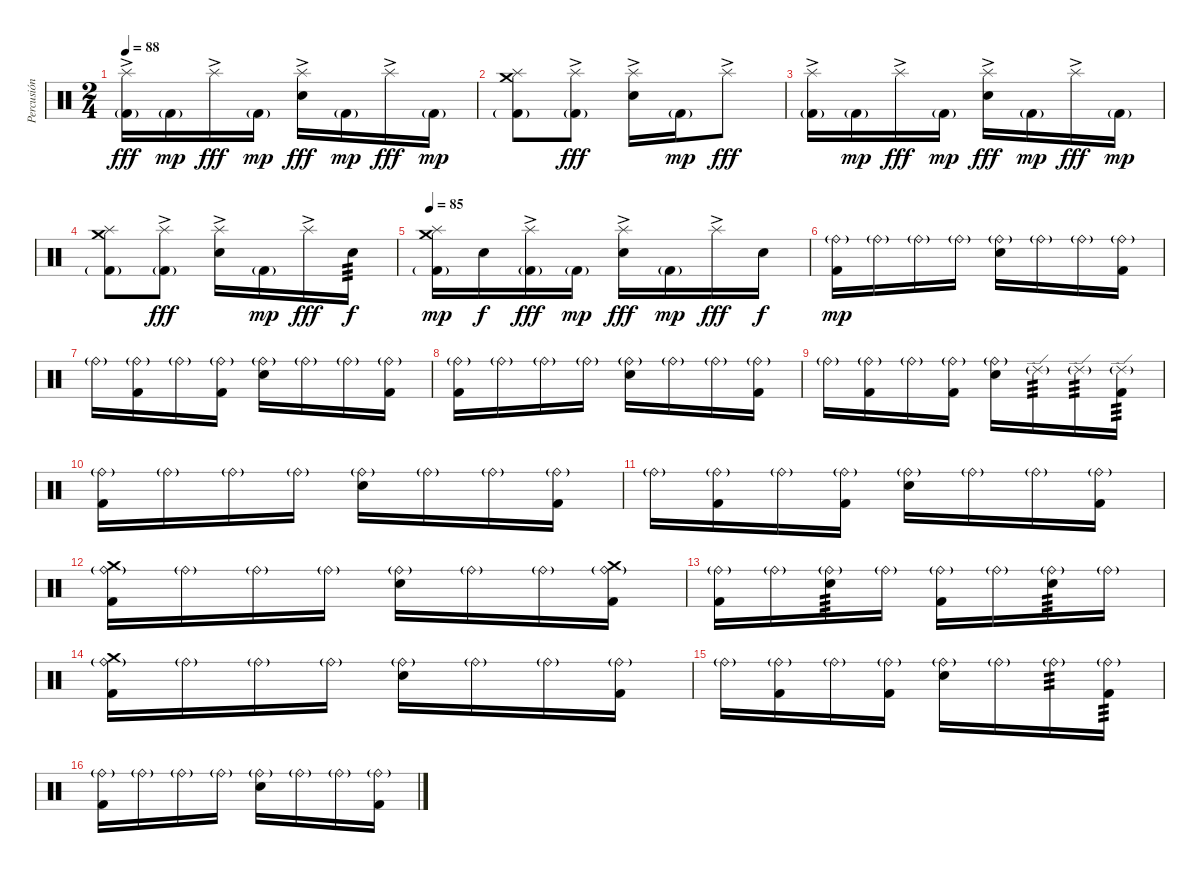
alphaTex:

\track ("Percusión" "Percusión") {instrument percussion}
\staff {score}
\articulation defaults
\ts (2 4)
\tempo 88
\clef neutral
\ks c
("Kick (hit) 2"{g} "Splash (hit)"{ac}).16{dy fff} "Kick (hit) 2"{g}.16{dy mp} "Splash (hit)"{ac}.16{dy fff} "Kick (hit) 2"{g}.16{dy mp} ("Electric Snare (hit)" "Splash (hit)"{ac}).16{dy fff} "Kick (hit) 2"{g}.16{dy mp} "Splash (hit)"{ac}.16{dy fff} "Kick (hit) 2"{g}.16{dy mp} |
("Kick (hit) 2"{g} "Splash (hit)" "Crash medium (hit)").8 ("Kick (hit) 2"{g} "Splash (hit)"{ac}).8{dy fff} ("Electric Snare (hit)" "Splash (hit)"{ac}).16 "Kick (hit) 2"{g}.16{dy mp} "Splash (hit)"{ac}.8{dy fff} |
("Kick (hit) 2"{g} "Splash (hit)"{ac}).16 "Kick (hit) 2"{g}.16{dy mp} "Splash (hit)"{ac}.16{dy fff} "Kick (hit) 2"{g}.16{dy mp} ("Electric Snare (hit)" "Splash (hit)"{ac}).16{dy fff} "Kick (hit) 2"{g}.16{dy mp} "Splash (hit)"{ac}.16{dy fff} "Kick (hit) 2"{g}.16{dy mp} |
("Kick (hit) 2"{g} "Splash (hit)" "Crash medium (hit)").8 ("Kick (hit) 2"{g} "Splash (hit)"{ac}).8{dy fff} ("Electric Snare (hit)" "Splash (hit)"{ac}).16 "Kick (hit) 2"{g}.16{dy mp} "Splash (hit)"{ac}.16{dy fff} "Electric Snare (hit)".16{tp 3 dy f} |
\tempo 85
("Kick (hit) 2"{g} "Splash (hit)" "Crash medium (hit)").16{dy mp} "Electric Snare (hit)".16{dy f} ("Kick (hit) 2"{g} "Splash (hit)"{ac}).16{dy fff} "Kick (hit) 2"{g}.16{dy mp} ("Electric Snare (hit)" "Splash (hit)"{ac}).16{dy fff} "Kick (hit) 2"{g}.16{dy mp} "Splash (hit)"{ac}.16{dy fff} "Electric Snare (hit)".16{dy f} |
("Kick (hit) 2" "Ride (bell)"{g}).16{dy mp} "Ride (bell)"{g}.16 "Ride (bell)"{g}.16 "Ride (bell)"{g}.16 ("Electric Snare (hit)" "Ride (bell)"{g}).16 "Ride (bell)"{g}.16 "Ride (bell)"{g}.16 ("Kick (hit) 2" "Ride (bell)"{g}).16 |
"Ride (bell)"{g}.16 ("Kick (hit) 2" "Ride (bell)"{g}).16 "Ride (bell)"{g}.16 ("Kick (hit) 2" "Ride (bell)"{g}).16 ("Electric Snare (hit)" "Ride (bell)"{g}).16 "Ride (bell)"{g}.16 "Ride (bell)"{g}.16 ("Kick (hit) 2" "Ride (bell)"{g}).16 |
("Kick (hit) 2" "Ride (bell)"{g}).16 "Ride (bell)"{g}.16 "Ride (bell)"{g}.16 "Ride (bell)"{g}.16 ("Electric Snare (hit)" "Ride (bell)"{g}).16 "Ride (bell)"{g}.16 "Ride (bell)"{g}.16 ("Kick (hit) 2" "Ride (bell)"{g}).16 |
"Ride (bell)"{g}.16 ("Kick (hit) 2" "Ride (bell)"{g}).16 "Ride (bell)"{g}.16 ("Kick (hit) 2" "Ride (bell)"{g}).16 ("Electric Snare (hit)" "Ride (bell)"{g}).16 "Ride (edge) 2"{g}.16{tp 3} "Ride (edge) 2"{g}.16{tp 3} ("Kick (hit) 2" "Ride (edge) 2"{g}).16{tp 3} |
("Kick (hit) 2" "Ride (bell)"{g}).16 "Ride (bell)"{g}.16 "Ride (bell)"{g}.16 "Ride (bell)"{g}.16 ("Electric Snare (hit)" "Ride (bell)"{g}).16 "Ride (bell)"{g}.16 "Ride (bell)"{g}.16 ("Kick (hit) 2" "Ride (bell)"{g}).16 |
"Ride (bell)"{g}.16 ("Kick (hit) 2" "Ride (bell)"{g}).16 "Ride (bell)"{g}.16 ("Kick (hit) 2" "Ride (bell)"{g}).16 ("Electric Snare (hit)" "Ride (bell)"{g}).16 "Ride (bell)"{g}.16 "Ride (bell)"{g}.16 ("Kick (hit) 2" "Ride (bell)"{g}).16 |
("Kick (hit) 2" "Ride (bell)"{g} "Crash medium (hit)").16 "Ride (bell)"{g}.16 "Ride (bell)"{g}.16 "Ride (bell)"{g}.16 ("Electric Snare (hit)" "Ride (bell)"{g}).16 "Ride (bell)"{g}.16 "Ride (bell)"{g}.16 ("Kick (hit) 2" "Ride (bell)"{g} "Crash medium (hit)").16 |
("Kick (hit) 2" "Ride (bell)"{g}).16 "Ride (bell)"{g}.16 ("Electric Snare (hit)" "Ride (bell)"{g}).16{tp 3} "Ride (bell)"{g}.16 ("Kick (hit) 2" "Ride (bell)"{g}).16 "Ride (bell)"{g}.16 ("Electric Snare (hit)" "Ride (bell)"{g}).16{tp 3} "Ride (bell)"{g}.16 |
("Kick (hit) 2" "Ride (bell)"{g} "Crash medium (hit)").16 "Ride (bell)"{g}.16 "Ride (bell)"{g}.16 "Ride (bell)"{g}.16 ("Electric Snare (hit)" "Ride (bell)"{g}).16 "Ride (bell)"{g}.16 "Ride (bell)"{g}.16 ("Kick (hit) 2" "Ride (bell)"{g}).16 |
"Ride (bell)"{g}.16 ("Kick (hit) 2" "Ride (bell)"{g}).16 "Ride (bell)"{g}.16 ("Kick (hit) 2" "Ride (bell)"{g}).16 ("Electric Snare (hit)" "Ride (bell)"{g}).16 "Ride (bell)"{g}.16 "Ride (bell)"{g}.16{tp 3} ("Kick (hit) 2" "Ride (bell)"{g}).16{tp 3} |
("Kick (hit) 2" "Ride (bell)"{g}).16 "Ride (bell)"{g}.16 "Ride (bell)"{g}.16 "Ride (bell)"{g}.16 ("Electric Snare (hit)" "Ride (bell)"{g}).16 "Ride (bell)"{g}.16 "Ride (bell)"{g}.16 ("Kick (hit) 2" "Ride (bell)"{g}).16
